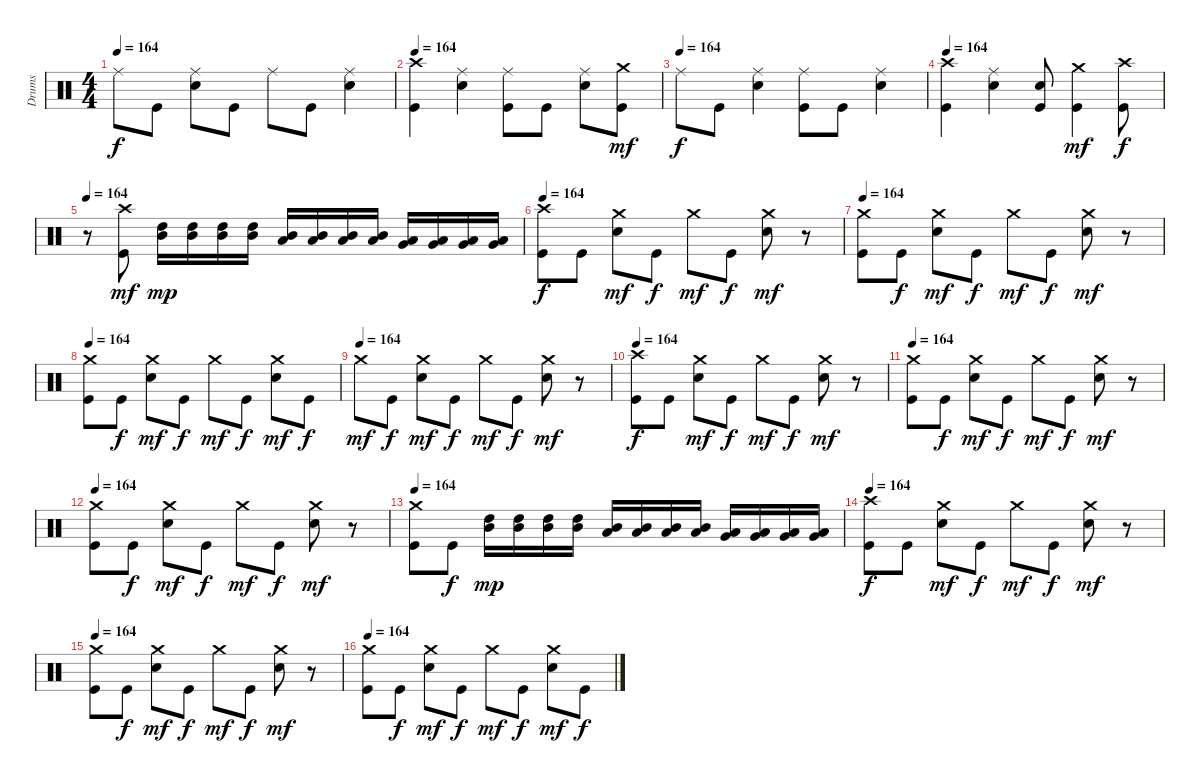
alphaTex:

\track ("Drums" "Drums") {instrument percussion}
\staff {score}
\articulation defaults
\ts (4 4)
\tempo 164
\clef neutral
\ks c "Ride (middle)".8{dy f} "Kick (hit)".8
("Electric Snare (hit)" "Ride (middle)").8 "Kick (hit)".8 "Ride (middle)".8 "Kick (hit)".8 ("Electric Snare (hit)" "Ride (middle)").4 |
\tempo 164
("Kick (hit)" "Crash high (hit)").4 ("Electric Snare (hit)" "Ride (middle)").4 ("Kick (hit)" "Ride (middle)").8 "Kick (hit)".8 ("Electric Snare (hit)" "Ride (middle)").8 ("Kick (hit)" "Crash medium (hit)").8{dy mf} |
\tempo (164)
"Ride (middle)".8{dy f} "Kick (hit)".8 ("Electric Snare (hit)" "Ride (middle)").4 ("Kick (hit)" "Ride (middle)").8 "Kick (hit)".8 ("Electric Snare (hit)" "Ride (middle)").4 |
\tempo 164
("Kick (hit)" "Crash high (hit)").4 ("Electric Snare (hit)" "Ride (middle)").4 ("Kick (hit)" "Electric Snare (hit)").8 ("Kick (hit)" "Crash medium (hit)").4{dy mf} ("Kick (hit)" "Crash high (hit)").8{dy f} |
\tempo 164
r.8 ("Kick (hit)" "Crash high (hit)").8{dy mf} ("High Tom (hit)" "Mid Tom (hit)").16{dy mp} ("High Tom (hit)" "Mid Tom (hit)").16 ("High Tom (hit)" "Mid Tom (hit)").16 ("High Tom (hit)" "Mid Tom (hit)").16 ("Mid Tom (hit)" "Low Tom (hit)").16 ("Mid Tom (hit)" "Low Tom (hit)").16 ("Mid Tom (hit)" "Low Tom (hit)").16 ("Mid Tom (hit)" "Low Tom (hit)").16 ("Very Low Tom (hit)" "Low Floor Tom (hit)").16 ("Very Low Tom (hit)" "Low Floor Tom (hit)").16 ("Very Low Tom (hit)" "Low Floor Tom (hit)").16 ("Very Low Tom (hit)" "Low Floor Tom (hit)").16 |
\tempo 164
("Kick (hit)" "Crash high (hit)").8{dy f} "Kick (hit)".8 ("Electric Snare (hit)" "Crash medium (hit)").8{dy mf} "Kick (hit)".8{dy f} "Crash medium (hit)".8{dy mf} "Kick (hit)".8{dy f} ("Electric Snare (hit)" "Crash medium (hit)").8{dy mf} r.8 |
\tempo 164
("Kick (hit)" "Crash medium (hit)").8 "Kick (hit)".8{dy f} ("Electric Snare (hit)" "Crash medium (hit)").8{dy mf} "Kick (hit)".8{dy f} "Crash medium (hit)".8{dy mf} "Kick (hit)".8{dy f} ("Electric Snare (hit)" "Crash medium (hit)").8{dy mf} r.8 |
\tempo 164
("Kick (hit)" "Crash medium (hit)").8 "Kick (hit)".8{dy f} ("Electric Snare (hit)" "Crash medium (hit)").8{dy mf} "Kick (hit)".8{dy f} "Crash medium (hit)".8{dy mf} "Kick (hit)".8{dy f} ("Electric Snare (hit)" "Crash medium (hit)").8{dy mf} "Kick (hit)".8{dy f} |
\tempo (164)
"Crash medium (hit)".8{dy mf} "Kick (hit)".8{dy f} ("Electric Snare (hit)" "Crash medium (hit)").8{dy mf} "Kick (hit)".8{dy f} "Crash medium (hit)".8{dy mf} "Kick (hit)".8{dy f} ("Electric Snare (hit)" "Crash medium (hit)").8{dy mf} r.8 |
\tempo 164
("Kick (hit)" "Crash high (hit)").8{dy f} "Kick (hit)".8 ("Electric Snare (hit)" "Crash medium (hit)").8{dy mf} "Kick (hit)".8{dy f} "Crash medium (hit)".8{dy mf} "Kick (hit)".8{dy f} ("Electric Snare (hit)" "Crash medium (hit)").8{dy mf} r.8 |
\tempo 164
("Kick (hit)" "Crash medium (hit)").8 "Kick (hit)".8{dy f} ("Electric Snare (hit)" "Crash medium (hit)").8{dy mf} "Kick (hit)".8{dy f} "Crash medium (hit)".8{dy mf} "Kick (hit)".8{dy f} ("Electric Snare (hit)" "Crash medium (hit)").8{dy mf} r.8 |
\tempo 164
("Kick (hit)" "Crash medium (hit)").8 "Kick (hit)".8{dy f} ("Electric Snare (hit)" "Crash medium (hit)").8{dy mf} "Kick (hit)".8{dy f} "Crash medium (hit)".8{dy mf} "Kick (hit)".8{dy f} ("Electric Snare (hit)" "Crash medium (hit)").8{dy mf} r.8 |
\tempo 164
("Kick (hit)" "Crash medium (hit)").8 "Kick (hit)".8{dy f} ("High Tom (hit)" "Mid Tom (hit)").16{dy mp} ("High Tom (hit)" "Mid Tom (hit)").16 ("High Tom (hit)" "Mid Tom (hit)").16 ("High Tom (hit)" "Mid Tom (hit)").16 ("Mid Tom (hit)" "Low Tom (hit)").16 ("Mid Tom (hit)" "Low Tom (hit)").16 ("Mid Tom (hit)" "Low Tom (hit)").16 ("Mid Tom (hit)" "Low Tom (hit)").16 ("Very Low Tom (hit)" "Low Floor Tom (hit)").16 ("Very Low Tom (hit)" "Low Floor Tom (hit)").16 ("Very Low Tom (hit)" "Low Floor Tom (hit)").16 ("Very Low Tom (hit)" "Low Floor Tom (hit)").16 |
\tempo 164
("Kick (hit)" "Crash high (hit)").8{dy f} "Kick (hit)".8 ("Electric Snare (hit)" "Crash medium (hit)").8{dy mf} "Kick (hit)".8{dy f} "Crash medium (hit)".8{dy mf} "Kick (hit)".8{dy f} ("Electric Snare (hit)" "Crash medium (hit)").8{dy mf} r.8 |
\tempo 164
("Kick (hit)" "Crash medium (hit)").8 "Kick (hit)".8{dy f} ("Electric Snare (hit)" "Crash medium (hit)").8{dy mf} "Kick (hit)".8{dy f} "Crash medium (hit)".8{dy mf} "Kick (hit)".8{dy f} ("Electric Snare (hit)" "Crash medium (hit)").8{dy mf} r.8 |
\tempo 164
("Kick (hit)" "Crash medium (hit)").8 "Kick (hit)".8{dy f} ("Electric Snare (hit)" "Crash medium (hit)").8{dy mf} "Kick (hit)".8{dy f} "Crash medium (hit)".8{dy mf} "Kick (hit)".8{dy f} ("Electric Snare (hit)" "Crash medium (hit)").8{dy mf} "Kick (hit)".8{dy f}
